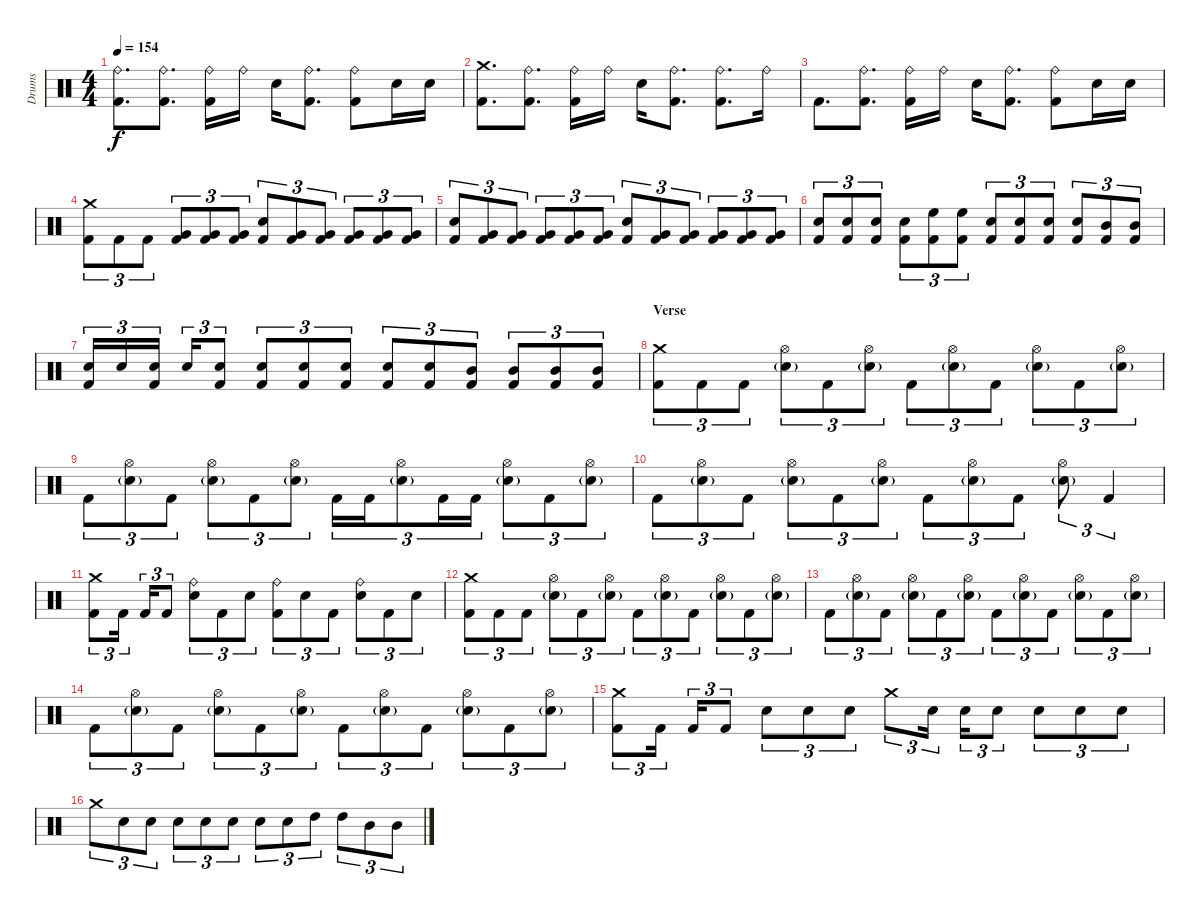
\track ("Drums" "Drums") {instrument percussion}
\staff {score}
\articulation defaults
\ts (4 4)
\tempo 154
\clef neutral
\ks c
("Ride (bell)" "Kick (hit) 2").8{d dy f} ("Ride (bell)" "Kick (hit) 2").8{d} ("Ride (bell)" "Kick (hit) 2").16 "Ride (bell)".16 "Snare (hit) 2".16 ("Ride (bell)" "Kick (hit) 2").8{d} ("Ride (bell)" "Kick (hit) 2").8 "Snare (hit) 2".16 "Snare (hit) 2".16 |
("Crash medium (hit)" "Kick (hit) 2").8{d} ("Ride (bell)" "Kick (hit) 2").8{d} ("Ride (bell)" "Kick (hit) 2").16 "Ride (bell)".16 "Snare (hit) 2".16 ("Ride (bell)" "Kick (hit) 2").8{d} ("Ride (bell)" "Kick (hit) 2").8{d} "Ride (bell)".16 |
"Kick (hit) 2".8{d} ("Ride (bell)" "Kick (hit) 2").8{d} ("Ride (bell)" "Kick (hit) 2").16 "Ride (bell)".16 "Snare (hit) 2".16 ("Ride (bell)" "Kick (hit) 2").8{d} ("Ride (bell)" "Kick (hit) 2").8 "Snare (hit) 2".16 "Snare (hit) 2".16 |
("Crash medium (hit)" "Kick (hit) 2").8{tu (3 2)} "Kick (hit) 2".8{tu (3 2)} "Kick (hit) 2".8{tu (3 2)} ("Very Low Tom (hit)" "Kick (hit) 2").8{tu (3 2)} ("Very Low Tom (hit)" "Kick (hit) 2").8{tu (3 2)} ("Very Low Tom (hit)" "Kick (hit) 2").8{tu (3 2)} ("Snare (hit) 2" "Kick (hit) 2").8{tu (3 2)} ("Very Low Tom (hit)" "Kick (hit) 2").8{tu (3 2)} ("Very Low Tom (hit)" "Kick (hit) 2").8{tu (3 2)} ("Very Low Tom (hit)" "Kick (hit) 2").8{tu (3 2)} ("Very Low Tom (hit)" "Kick (hit) 2").8{tu (3 2)} ("Very Low Tom (hit)" "Kick (hit) 2").8{tu (3 2)} |
("Snare (hit) 2" "Kick (hit) 2").8{tu (3 2)} ("Very Low Tom (hit)" "Kick (hit) 2").8{tu (3 2)} ("Very Low Tom (hit)" "Kick (hit) 2").8{tu (3 2)} ("Very Low Tom (hit)" "Kick (hit) 2").8{tu (3 2)} ("Very Low Tom (hit)" "Kick (hit) 2").8{tu (3 2)} ("Very Low Tom (hit)" "Kick (hit) 2").8{tu (3 2)} ("Snare (hit) 2" "Kick (hit) 2").8{tu (3 2)} ("Very Low Tom (hit)" "Kick (hit) 2").8{tu (3 2)} ("Very Low Tom (hit)" "Kick (hit) 2").8{tu (3 2)} ("Very Low Tom (hit)" "Kick (hit) 2").8{tu (3 2)} ("Very Low Tom (hit)" "Kick (hit) 2").8{tu (3 2)} ("Very Low Tom (hit)" "Kick (hit) 2").8{tu (3 2)} |
("Snare (hit) 2" "Kick (hit) 2").8{tu (3 2)} ("Snare (hit) 2" "Kick (hit) 2").8{tu (3 2)} ("Snare (hit) 2" "Kick (hit) 2").8{tu (3 2)} ("Snare (hit) 2" "Kick (hit) 2").8{tu (3 2)} ("High Floor Tom (hit)" "Kick (hit) 2").8{tu (3 2)} ("High Floor Tom (hit)" "Kick (hit) 2").8{tu (3 2)} ("Snare (hit) 2" "Kick (hit) 2").8{tu (3 2)} ("Snare (hit) 2" "Kick (hit) 2").8{tu (3 2)} ("Snare (hit) 2" "Kick (hit) 2").8{tu (3 2)} ("Snare (hit) 2" "Kick (hit) 2").8{tu (3 2)} ("Mid Tom (hit)" "Kick (hit) 2").8{tu (3 2)} ("Mid Tom (hit)" "Kick (hit) 2").8{tu (3 2)} |
("Snare (hit) 2" "Kick (hit) 2").16{tu (3 2)} "Snare (hit) 2".16{tu (3 2)} ("Snare (hit) 2" "Kick (hit) 2").16{tu (3 2)} "Snare (hit) 2".16{tu (3 2)} ("Snare (hit) 2" "Kick (hit) 2").8{tu (3 2)} ("Snare (hit) 2" "Kick (hit) 2").8{tu (3 2)} ("Snare (hit) 2" "Kick (hit) 2").8{tu (3 2)} ("Snare (hit) 2" "Kick (hit) 2").8{tu (3 2)} ("Snare (hit) 2" "Kick (hit) 2").8{tu (3 2)} ("Snare (hit) 2" "Kick (hit) 2").8{tu (3 2)} ("Mid Tom (hit)" "Kick (hit) 2").8{tu (3 2)} ("Mid Tom (hit)" "Kick (hit) 2").8{tu (3 2)} ("Mid Tom (hit)" "Kick (hit) 2").8{tu (3 2)} ("Mid Tom (hit)" "Kick (hit) 2").8{tu (3 2)} |
\section ("" "Verse")
("Crash medium (hit)" "Kick (hit) 2").8{tu (3 2)} "Kick (hit) 2".8{tu (3 2)} "Kick (hit) 2".8{tu (3 2)} ("Hi-Hat (open)" "Snare (hit) 2"{g}).8{tu (3 2)} "Kick (hit) 2".8{tu (3 2)} ("Hi-Hat (open)" "Snare (hit) 2"{g}).8{tu (3 2)} "Kick (hit) 2".8{tu (3 2)} ("Hi-Hat (open)" "Snare (hit) 2"{g}).8{tu (3 2)} "Kick (hit) 2".8{tu (3 2)} ("Hi-Hat (open)" "Snare (hit) 2"{g}).8{tu (3 2)} "Kick (hit) 2".8{tu (3 2)} ("Hi-Hat (open)" "Snare (hit) 2"{g}).8{tu (3 2)} |
"Kick (hit) 2".8{tu (3 2)} ("Hi-Hat (open)" "Snare (hit) 2"{g}).8{tu (3 2)} "Kick (hit) 2".8{tu (3 2)} ("Hi-Hat (open)" "Snare (hit) 2"{g}).8{tu (3 2)} "Kick (hit) 2".8{tu (3 2)} ("Hi-Hat (open)" "Snare (hit) 2"{g}).8{tu (3 2)} "Kick (hit) 2".16{tu (3 2)} "Kick (hit) 2".16{tu (3 2)} ("Hi-Hat (open)" "Snare (hit) 2"{g}).8{tu (3 2)} "Kick (hit) 2".16{tu (3 2)} "Kick (hit) 2".16{tu (3 2)} ("Hi-Hat (open)" "Snare (hit) 2"{g}).8{tu (3 2)} "Kick (hit) 2".8{tu (3 2)} ("Hi-Hat (open)" "Snare (hit) 2"{g}).8{tu (3 2)} |
"Kick (hit) 2".8{tu (3 2)} ("Hi-Hat (open)" "Snare (hit) 2"{g}).8{tu (3 2)} "Kick (hit) 2".8{tu (3 2)} ("Hi-Hat (open)" "Snare (hit) 2"{g}).8{tu (3 2)} "Kick (hit) 2".8{tu (3 2)} ("Hi-Hat (open)" "Snare (hit) 2"{g}).8{tu (3 2)} "Kick (hit) 2".8{tu (3 2)} ("Hi-Hat (open)" "Snare (hit) 2"{g}).8{tu (3 2)} "Kick (hit) 2".8{tu (3 2)} ("Hi-Hat (open)" "Snare (hit) 2"{g}).8{tu (3 2)} "Kick (hit) 2".4{tu (3 2)} |
("Crash medium (hit)" "Kick (hit) 2").8{tu (3 2)} "Kick (hit) 2".16{tu (3 2)} "Kick (hit) 2".16{tu (3 2)} "Kick (hit) 2".8{tu (3 2)} ("Ride (bell)" "Snare (hit) 2").8{tu (3 2)} "Kick (hit) 2".8{tu (3 2)} "Snare (hit) 2".8{tu (3 2)} ("Ride (bell)" "Kick (hit) 2").8{tu (3 2)} "Snare (hit) 2".8{tu (3 2)} "Kick (hit) 2".8{tu (3 2)} ("Ride (bell)" "Snare (hit) 2").8{tu (3 2)} "Kick (hit) 2".8{tu (3 2)} "Snare (hit) 2".8{tu (3 2)} |
("Crash medium (hit)" "Kick (hit) 2").8{tu (3 2)} "Kick (hit) 2".8{tu (3 2)} "Kick (hit) 2".8{tu (3 2)} ("Hi-Hat (open)" "Snare (hit) 2"{g}).8{tu (3 2)} "Kick (hit) 2".8{tu (3 2)} ("Hi-Hat (open)" "Snare (hit) 2"{g}).8{tu (3 2)} "Kick (hit) 2".8{tu (3 2)} ("Hi-Hat (open)" "Snare (hit) 2"{g}).8{tu (3 2)} "Kick (hit) 2".8{tu (3 2)} ("Hi-Hat (open)" "Snare (hit) 2"{g}).8{tu (3 2)} "Kick (hit) 2".8{tu (3 2)} ("Hi-Hat (open)" "Snare (hit) 2"{g}).8{tu (3 2)} |
"Kick (hit) 2".8{tu (3 2)} ("Hi-Hat (open)" "Snare (hit) 2"{g}).8{tu (3 2)} "Kick (hit) 2".8{tu (3 2)} ("Hi-Hat (open)" "Snare (hit) 2"{g}).8{tu (3 2)} "Kick (hit) 2".8{tu (3 2)} ("Hi-Hat (open)" "Snare (hit) 2"{g}).8{tu (3 2)} "Kick (hit) 2".8{tu (3 2)} ("Hi-Hat (open)" "Snare (hit) 2"{g}).8{tu (3 2)} "Kick (hit) 2".8{tu (3 2)} ("Hi-Hat (open)" "Snare (hit) 2"{g}).8{tu (3 2)} "Kick (hit) 2".8{tu (3 2)} ("Hi-Hat (open)" "Snare (hit) 2"{g}).8{tu (3 2)} |
"Kick (hit) 2".8{tu (3 2)} ("Hi-Hat (open)" "Snare (hit) 2"{g}).8{tu (3 2)} "Kick (hit) 2".8{tu (3 2)} ("Hi-Hat (open)" "Snare (hit) 2"{g}).8{tu (3 2)} "Kick (hit) 2".8{tu (3 2)} ("Hi-Hat (open)" "Snare (hit) 2"{g}).8{tu (3 2)} "Kick (hit) 2".8{tu (3 2)} ("Hi-Hat (open)" "Snare (hit) 2"{g}).8{tu (3 2)} "Kick (hit) 2".8{tu (3 2)} ("Hi-Hat (open)" "Snare (hit) 2"{g}).8{tu (3 2)} "Kick (hit) 2".8{tu (3 2)} ("Hi-Hat (open)" "Snare (hit) 2"{g}).8{tu (3 2)} |
("Crash medium (hit)" "Kick (hit) 2").8{tu (3 2)} "Kick (hit) 2".16{tu (3 2)} "Kick (hit) 2".16{tu (3 2)} "Kick (hit) 2".8{tu (3 2)} "Snare (hit) 2".8{tu (3 2)} "Snare (hit) 2".8{tu (3 2)} "Snare (hit) 2".8{tu (3 2)} "Crash medium (hit)".8{tu (3 2)} "Snare (hit) 2".16{tu (3 2)} "Snare (hit) 2".16{tu (3 2)} "Snare (hit) 2".8{tu (3 2)} "Snare (hit) 2".8{tu (3 2)} "Snare (hit) 2".8{tu (3 2)} "Snare (hit) 2".8{tu (3 2)} |
"Crash medium (hit)".8{tu (3 2)} "Snare (hit) 2".8{tu (3 2)} "Snare (hit) 2".8{tu (3 2)} "Snare (hit) 2".8{tu (3 2)} "Snare (hit) 2".8{tu (3 2)} "Snare (hit) 2".8{tu (3 2)} "Snare (hit) 2".8{tu (3 2)} "Snare (hit) 2".8{tu (3 2)} "High Tom (hit)".8{tu (3 2)} "High Tom (hit)".8{tu (3 2)} "Mid Tom (hit)".8{tu (3 2)} "Mid Tom (hit)".8{tu (3 2)}
